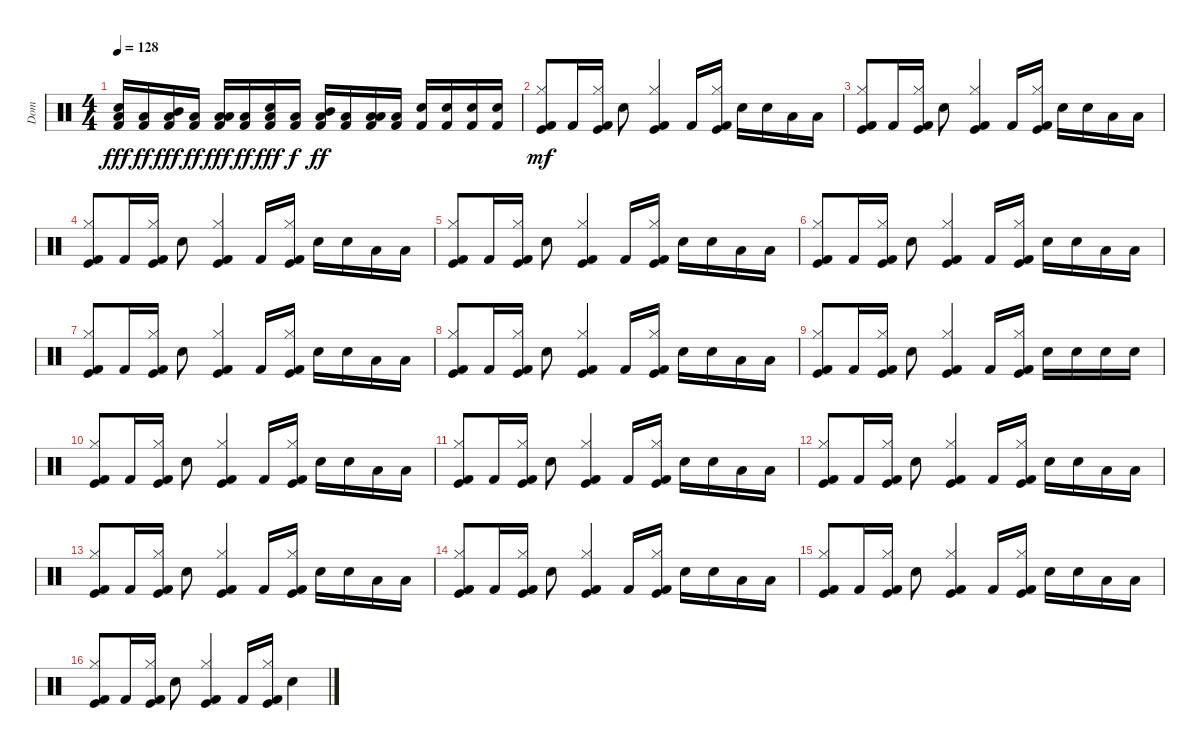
\track ("Dom " "Dom ") {instrument percussion}
\staff {score}
\articulation defaults
\ts (4 4)
\tempo 128
\clef neutral
\ks c
("Electric Snare (hit)" "Low Floor Tom (hit)" "Kick (hit) 2").16{dy fff} ("Low Floor Tom (hit)" "Kick (hit) 2").16{dy ff} ("Mid Tom (hit)" "Low Floor Tom (hit)" "Kick (hit) 2").16{dy fff} ("Low Floor Tom (hit)" "Kick (hit) 2").16{dy ff} ("Low Tom (hit)" "Low Floor Tom (hit)" "Kick (hit) 2").16{dy fff} ("Low Floor Tom (hit)" "Kick (hit) 2").16{dy ff} ("Electric Snare (hit)" "Low Floor Tom (hit)" "Kick (hit) 2").16{dy fff} ("Low Floor Tom (hit)" "Kick (hit) 2").16{dy f} ("Mid Tom (hit)" "Low Floor Tom (hit)" "Kick (hit) 2").16{dy ff} ("Low Floor Tom (hit)" "Kick (hit) 2").16 ("Low Tom (hit)" "Low Floor Tom (hit)" "Kick (hit) 2").16 ("Low Floor Tom (hit)" "Kick (hit) 2").16 ("Electric Snare (hit)" "Kick (hit) 2").16 ("Electric Snare (hit)" "Kick (hit) 2").16 ("Electric Snare (hit)" "Kick (hit) 2").16 ("Electric Snare (hit)" "Kick (hit) 2").16 |
("Hi-Hat (closed)" "Kick (hit)" "Kick (hit) 2").8{dy mf} "Kick (hit) 2".16 ("Hi-Hat (closed)" "Kick (hit)" "Kick (hit) 2").16 "Electric Snare (hit)".8 ("Hi-Hat (closed)" "Kick (hit)" "Kick (hit) 2").4 "Kick (hit) 2".16 ("Hi-Hat (closed)" "Kick (hit)" "Kick (hit) 2").16 "Electric Snare (hit)".16 "Electric Snare (hit)".16 "Low Floor Tom (hit)".16 "Low Floor Tom (hit)".16 |
("Hi-Hat (closed)" "Kick (hit)" "Kick (hit) 2").8 "Kick (hit) 2".16 ("Hi-Hat (closed)" "Kick (hit)" "Kick (hit) 2").16 "Electric Snare (hit)".8 ("Hi-Hat (closed)" "Kick (hit)" "Kick (hit) 2").4 "Kick (hit) 2".16 ("Hi-Hat (closed)" "Kick (hit)" "Kick (hit) 2").16 "Electric Snare (hit)".16 "Electric Snare (hit)".16 "Low Floor Tom (hit)".16 "Low Floor Tom (hit)".16 |
("Hi-Hat (closed)" "Kick (hit)" "Kick (hit) 2").8 "Kick (hit) 2".16 ("Hi-Hat (closed)" "Kick (hit)" "Kick (hit) 2").16 "Electric Snare (hit)".8 ("Hi-Hat (closed)" "Kick (hit)" "Kick (hit) 2").4 "Kick (hit) 2".16 ("Hi-Hat (closed)" "Kick (hit)" "Kick (hit) 2").16 "Electric Snare (hit)".16 "Electric Snare (hit)".16 "Low Floor Tom (hit)".16 "Low Floor Tom (hit)".16 |
("Hi-Hat (closed)" "Kick (hit)" "Kick (hit) 2").8 "Kick (hit) 2".16 ("Hi-Hat (closed)" "Kick (hit)" "Kick (hit) 2").16 "Electric Snare (hit)".8 ("Hi-Hat (closed)" "Kick (hit)" "Kick (hit) 2").4 "Kick (hit) 2".16 ("Hi-Hat (closed)" "Kick (hit)" "Kick (hit) 2").16 "Electric Snare (hit)".16 "Electric Snare (hit)".16 "Low Floor Tom (hit)".16 "Low Floor Tom (hit)".16 |
("Hi-Hat (closed)" "Kick (hit)" "Kick (hit) 2").8 "Kick (hit) 2".16 ("Hi-Hat (closed)" "Kick (hit)" "Kick (hit) 2").16 "Electric Snare (hit)".8 ("Hi-Hat (closed)" "Kick (hit)" "Kick (hit) 2").4 "Kick (hit) 2".16 ("Hi-Hat (closed)" "Kick (hit)" "Kick (hit) 2").16 "Electric Snare (hit)".16 "Electric Snare (hit)".16 "Low Floor Tom (hit)".16 "Low Floor Tom (hit)".16 |
("Hi-Hat (closed)" "Kick (hit)" "Kick (hit) 2").8 "Kick (hit) 2".16 ("Hi-Hat (closed)" "Kick (hit)" "Kick (hit) 2").16 "Electric Snare (hit)".8 ("Hi-Hat (closed)" "Kick (hit)" "Kick (hit) 2").4 "Kick (hit) 2".16 ("Hi-Hat (closed)" "Kick (hit)" "Kick (hit) 2").16 "Electric Snare (hit)".16 "Electric Snare (hit)".16 "Low Floor Tom (hit)".16 "Low Floor Tom (hit)".16 |
("Hi-Hat (closed)" "Kick (hit)" "Kick (hit) 2").8 "Kick (hit) 2".16 ("Hi-Hat (closed)" "Kick (hit)" "Kick (hit) 2").16 "Electric Snare (hit)".8 ("Hi-Hat (closed)" "Kick (hit)" "Kick (hit) 2").4 "Kick (hit) 2".16 ("Hi-Hat (closed)" "Kick (hit)" "Kick (hit) 2").16 "Electric Snare (hit)".16 "Electric Snare (hit)".16 "Low Floor Tom (hit)".16 "Low Floor Tom (hit)".16 |
("Hi-Hat (closed)" "Kick (hit)" "Kick (hit) 2").8 "Kick (hit) 2".16 ("Hi-Hat (closed)" "Kick (hit)" "Kick (hit) 2").16 "Electric Snare (hit)".8 ("Hi-Hat (closed)" "Kick (hit)" "Kick (hit) 2").4 "Kick (hit) 2".16 ("Hi-Hat (closed)" "Kick (hit)" "Kick (hit) 2").16 "Electric Snare (hit)".16 "Electric Snare (hit)".16 "Electric Snare (hit)".16 "Electric Snare (hit)".16 |
("Hi-Hat (closed)" "Kick (hit)" "Kick (hit) 2").8 "Kick (hit) 2".16 ("Hi-Hat (closed)" "Kick (hit)" "Kick (hit) 2").16 "Electric Snare (hit)".8 ("Hi-Hat (closed)" "Kick (hit)" "Kick (hit) 2").4 "Kick (hit) 2".16 ("Hi-Hat (closed)" "Kick (hit)" "Kick (hit) 2").16 "Electric Snare (hit)".16 "Electric Snare (hit)".16 "Low Floor Tom (hit)".16 "Low Floor Tom (hit)".16 |
("Hi-Hat (closed)" "Kick (hit)" "Kick (hit) 2").8 "Kick (hit) 2".16 ("Hi-Hat (closed)" "Kick (hit)" "Kick (hit) 2").16 "Electric Snare (hit)".8 ("Hi-Hat (closed)" "Kick (hit)" "Kick (hit) 2").4 "Kick (hit) 2".16 ("Hi-Hat (closed)" "Kick (hit)" "Kick (hit) 2").16 "Electric Snare (hit)".16 "Electric Snare (hit)".16 "Low Floor Tom (hit)".16 "Low Floor Tom (hit)".16 |
("Hi-Hat (closed)" "Kick (hit)" "Kick (hit) 2").8 "Kick (hit) 2".16 ("Hi-Hat (closed)" "Kick (hit)" "Kick (hit) 2").16 "Electric Snare (hit)".8 ("Hi-Hat (closed)" "Kick (hit)" "Kick (hit) 2").4 "Kick (hit) 2".16 ("Hi-Hat (closed)" "Kick (hit)" "Kick (hit) 2").16 "Electric Snare (hit)".16 "Electric Snare (hit)".16 "Low Floor Tom (hit)".16 "Low Floor Tom (hit)".16 |
("Hi-Hat (closed)" "Kick (hit)" "Kick (hit) 2").8 "Kick (hit) 2".16 ("Hi-Hat (closed)" "Kick (hit)" "Kick (hit) 2").16 "Electric Snare (hit)".8 ("Hi-Hat (closed)" "Kick (hit)" "Kick (hit) 2").4 "Kick (hit) 2".16 ("Hi-Hat (closed)" "Kick (hit)" "Kick (hit) 2").16 "Electric Snare (hit)".16 "Electric Snare (hit)".16 "Low Floor Tom (hit)".16 "Low Floor Tom (hit)".16 |
("Hi-Hat (closed)" "Kick (hit)" "Kick (hit) 2").8 "Kick (hit) 2".16 ("Hi-Hat (closed)" "Kick (hit)" "Kick (hit) 2").16 "Electric Snare (hit)".8 ("Hi-Hat (closed)" "Kick (hit)" "Kick (hit) 2").4 "Kick (hit) 2".16 ("Hi-Hat (closed)" "Kick (hit)" "Kick (hit) 2").16 "Electric Snare (hit)".16 "Electric Snare (hit)".16 "Low Floor Tom (hit)".16 "Low Floor Tom (hit)".16 |
("Hi-Hat (closed)" "Kick (hit)" "Kick (hit) 2").8 "Kick (hit) 2".16 ("Hi-Hat (closed)" "Kick (hit)" "Kick (hit) 2").16 "Electric Snare (hit)".8 ("Hi-Hat (closed)" "Kick (hit)" "Kick (hit) 2").4 "Kick (hit) 2".16 ("Hi-Hat (closed)" "Kick (hit)" "Kick (hit) 2").16 "Electric Snare (hit)".16 "Electric Snare (hit)".16 "Low Floor Tom (hit)".16 "Low Floor Tom (hit)".16 |
("Hi-Hat (closed)" "Kick (hit)" "Kick (hit) 2").8 "Kick (hit) 2".16 ("Hi-Hat (closed)" "Kick (hit)" "Kick (hit) 2").16 "Electric Snare (hit)".8 ("Hi-Hat (closed)" "Kick (hit)" "Kick (hit) 2").4 "Kick (hit) 2".16 ("Hi-Hat (closed)" "Kick (hit)" "Kick (hit) 2").16 "Electric Snare (hit)".4
